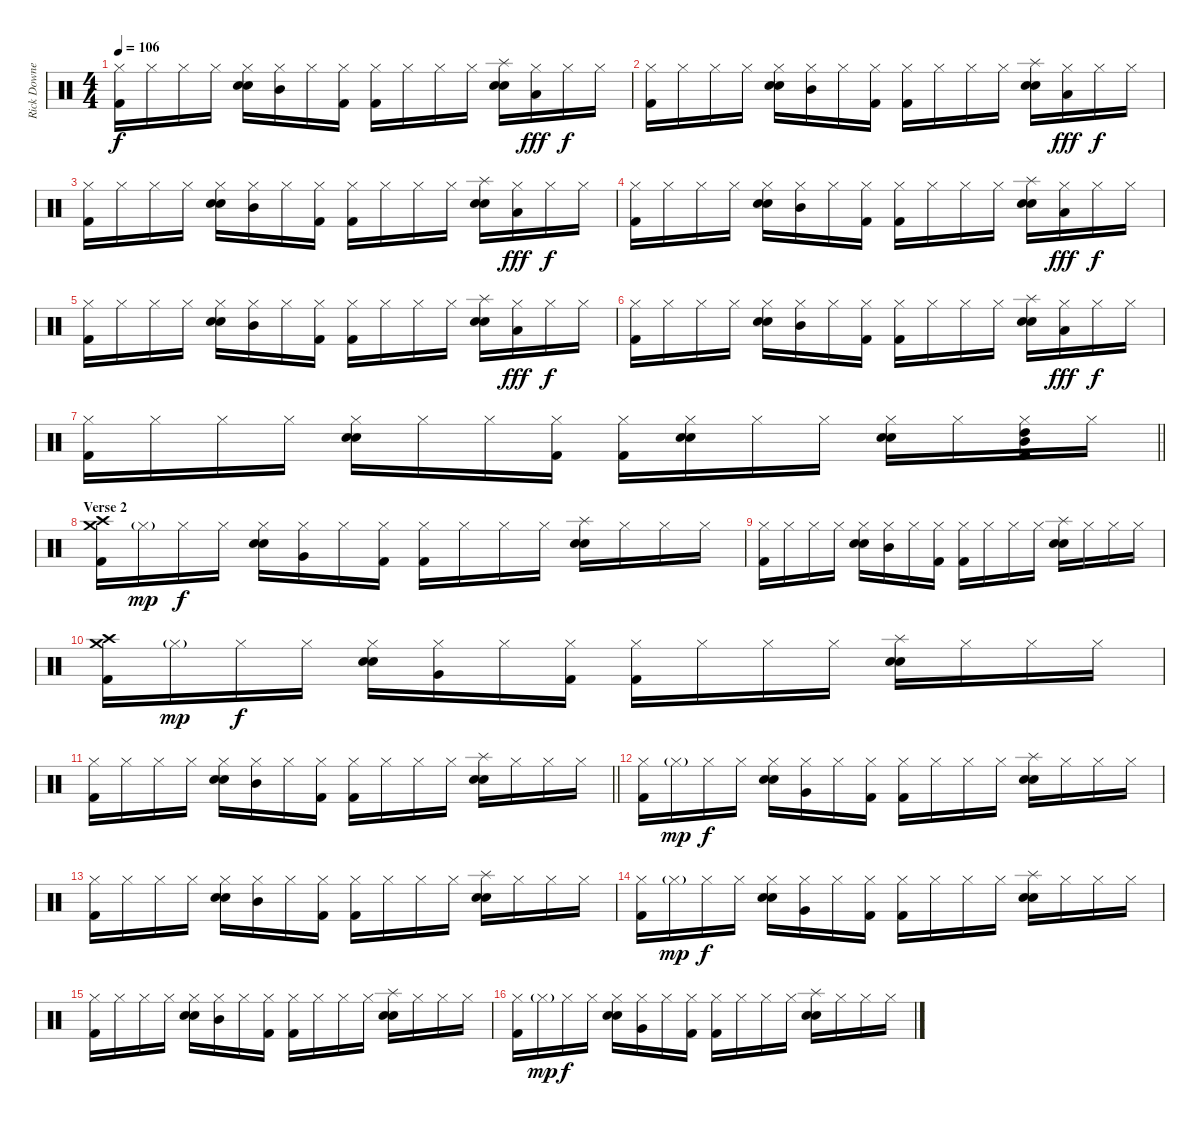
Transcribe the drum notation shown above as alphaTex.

\track ("Rick Downey" "Rick Downe") {instrument percussion}
\staff {score}
\articulation defaults
\ts (4 4)
\tempo 106
\clef neutral
\ks c
("Hi-Hat (closed)" "Kick (hit) 2").16{dy f} "Hi-Hat (closed)".16 "Hi-Hat (closed)".16 "Hi-Hat (closed)".16 ("Hi-Hat (closed)" "Electric Snare (hit)" "Snare (hit) 2").16 ("Mid Tom (hit)" "Hi-Hat (closed)").16 "Hi-Hat (closed)".16 ("Hi-Hat (closed)" "Kick (hit) 2").16 ("Hi-Hat (closed)" "Kick (hit) 2").16 "Hi-Hat (closed)".16 "Hi-Hat (closed)".16 "Hi-Hat (closed)".16 ("Splash (hit)" "Electric Snare (hit)" "Snare (hit) 2").16 ("Low Tom (hit)" "Hi-Hat (closed)").16{dy fff} "Hi-Hat (closed)".16{dy f} "Hi-Hat (closed)".16 |
("Hi-Hat (closed)" "Kick (hit) 2").16 "Hi-Hat (closed)".16 "Hi-Hat (closed)".16 "Hi-Hat (closed)".16 ("Hi-Hat (closed)" "Electric Snare (hit)" "Snare (hit) 2").16 ("Mid Tom (hit)" "Hi-Hat (closed)").16 "Hi-Hat (closed)".16 ("Hi-Hat (closed)" "Kick (hit) 2").16 ("Hi-Hat (closed)" "Kick (hit) 2").16 "Hi-Hat (closed)".16 "Hi-Hat (closed)".16 "Hi-Hat (closed)".16 ("Splash (hit)" "Electric Snare (hit)" "Snare (hit) 2").16 ("Low Tom (hit)" "Hi-Hat (closed)").16{dy fff} "Hi-Hat (closed)".16{dy f} "Hi-Hat (closed)".16 |
("Hi-Hat (closed)" "Kick (hit) 2").16 "Hi-Hat (closed)".16 "Hi-Hat (closed)".16 "Hi-Hat (closed)".16 ("Hi-Hat (closed)" "Electric Snare (hit)" "Snare (hit) 2").16 ("Mid Tom (hit)" "Hi-Hat (closed)").16 "Hi-Hat (closed)".16 ("Hi-Hat (closed)" "Kick (hit) 2").16 ("Hi-Hat (closed)" "Kick (hit) 2").16 "Hi-Hat (closed)".16 "Hi-Hat (closed)".16 "Hi-Hat (closed)".16 ("Splash (hit)" "Electric Snare (hit)" "Snare (hit) 2").16 ("Low Tom (hit)" "Hi-Hat (closed)").16{dy fff} "Hi-Hat (closed)".16{dy f} "Hi-Hat (closed)".16 |
("Hi-Hat (closed)" "Kick (hit) 2").16 "Hi-Hat (closed)".16 "Hi-Hat (closed)".16 "Hi-Hat (closed)".16 ("Hi-Hat (closed)" "Electric Snare (hit)" "Snare (hit) 2").16 ("Mid Tom (hit)" "Hi-Hat (closed)").16 "Hi-Hat (closed)".16 ("Hi-Hat (closed)" "Kick (hit) 2").16 ("Hi-Hat (closed)" "Kick (hit) 2").16 "Hi-Hat (closed)".16 "Hi-Hat (closed)".16 "Hi-Hat (closed)".16 ("Splash (hit)" "Electric Snare (hit)" "Snare (hit) 2").16 ("Low Tom (hit)" "Hi-Hat (closed)").16{dy fff} "Hi-Hat (closed)".16{dy f} "Hi-Hat (closed)".16 |
("Hi-Hat (closed)" "Kick (hit) 2").16 "Hi-Hat (closed)".16 "Hi-Hat (closed)".16 "Hi-Hat (closed)".16 ("Hi-Hat (closed)" "Electric Snare (hit)" "Snare (hit) 2").16 ("Mid Tom (hit)" "Hi-Hat (closed)").16 "Hi-Hat (closed)".16 ("Hi-Hat (closed)" "Kick (hit) 2").16 ("Hi-Hat (closed)" "Kick (hit) 2").16 "Hi-Hat (closed)".16 "Hi-Hat (closed)".16 "Hi-Hat (closed)".16 ("Splash (hit)" "Electric Snare (hit)" "Snare (hit) 2").16 ("Low Tom (hit)" "Hi-Hat (closed)").16{dy fff} "Hi-Hat (closed)".16{dy f} "Hi-Hat (closed)".16 |
("Hi-Hat (closed)" "Kick (hit) 2").16 "Hi-Hat (closed)".16 "Hi-Hat (closed)".16 "Hi-Hat (closed)".16 ("Hi-Hat (closed)" "Electric Snare (hit)" "Snare (hit) 2").16 ("Mid Tom (hit)" "Hi-Hat (closed)").16 "Hi-Hat (closed)".16 ("Hi-Hat (closed)" "Kick (hit) 2").16 ("Hi-Hat (closed)" "Kick (hit) 2").16 "Hi-Hat (closed)".16 "Hi-Hat (closed)".16 "Hi-Hat (closed)".16 ("Splash (hit)" "Electric Snare (hit)" "Snare (hit) 2").16 ("Low Tom (hit)" "Hi-Hat (closed)").16{dy fff} "Hi-Hat (closed)".16{dy f} "Hi-Hat (closed)".16 |
\barLineRight lightlight
("Hi-Hat (closed)" "Kick (hit) 2").16 "Hi-Hat (closed)".16 "Hi-Hat (closed)".16 "Hi-Hat (closed)".16 ("Hi-Hat (closed)" "Electric Snare (hit)" "Snare (hit) 2").16 "Hi-Hat (closed)".16 "Hi-Hat (closed)".16 ("Hi-Hat (closed)" "Kick (hit) 2").16 ("Hi-Hat (closed)" "Kick (hit) 2").16 ("Hi-Hat (closed)" "Electric Snare (hit)" "Snare (hit) 2").16 "Hi-Hat (closed)".16 "Hi-Hat (closed)".16 ("Hi-Hat (closed)" "Electric Snare (hit)" "Snare (hit) 2").16 "Hi-Hat (closed)".16 ("High Tom (hit)" "Mid Tom (hit)" "Hi-Hat (closed)" "Kick (hit) 2").16 "Hi-Hat (closed)".16 |
\section ("" "Verse 2")
("Crash medium (hit)" "Crash high (hit)" "Kick (hit) 2").16 "Hi-Hat (closed)"{g}.16{dy mp} "Hi-Hat (closed)".16{dy f} "Hi-Hat (closed)".16 ("Hi-Hat (closed)" "Electric Snare (hit)" "Snare (hit) 2").16 ("Hi-Hat (closed)" "Very Low Tom (hit)").16 "Hi-Hat (closed)".16 ("Hi-Hat (closed)" "Kick (hit) 2").16 ("Hi-Hat (closed)" "Kick (hit) 2").16 "Hi-Hat (closed)".16 "Hi-Hat (closed)".16 "Hi-Hat (closed)".16 ("Splash (hit)" "Electric Snare (hit)" "Snare (hit) 2").16 "Hi-Hat (closed)".16 "Hi-Hat (closed)".16 "Hi-Hat (closed)".16 |
("Hi-Hat (closed)" "Kick (hit) 2").16 "Hi-Hat (closed)".16 "Hi-Hat (closed)".16 "Hi-Hat (closed)".16 ("Hi-Hat (closed)" "Electric Snare (hit)" "Snare (hit) 2").16 ("Mid Tom (hit)" "Hi-Hat (closed)").16 "Hi-Hat (closed)".16 ("Hi-Hat (closed)" "Kick (hit) 2").16 ("Hi-Hat (closed)" "Kick (hit) 2").16 "Hi-Hat (closed)".16 "Hi-Hat (closed)".16 "Hi-Hat (closed)".16 ("Splash (hit)" "Electric Snare (hit)" "Snare (hit) 2").16 "Hi-Hat (closed)".16 "Hi-Hat (closed)".16 "Hi-Hat (closed)".16 |
("Crash medium (hit)" "Crash high (hit)" "Kick (hit) 2").16 "Hi-Hat (closed)"{g}.16{dy mp} "Hi-Hat (closed)".16{dy f} "Hi-Hat (closed)".16 ("Hi-Hat (closed)" "Electric Snare (hit)" "Snare (hit) 2").16 ("Hi-Hat (closed)" "Very Low Tom (hit)").16 "Hi-Hat (closed)".16 ("Hi-Hat (closed)" "Kick (hit) 2").16 ("Hi-Hat (closed)" "Kick (hit) 2").16 "Hi-Hat (closed)".16 "Hi-Hat (closed)".16 "Hi-Hat (closed)".16 ("Splash (hit)" "Electric Snare (hit)" "Snare (hit) 2").16 "Hi-Hat (closed)".16 "Hi-Hat (closed)".16 "Hi-Hat (closed)".16 |
\barLineRight lightlight
("Hi-Hat (closed)" "Kick (hit) 2").16 "Hi-Hat (closed)".16 "Hi-Hat (closed)".16 "Hi-Hat (closed)".16 ("Hi-Hat (closed)" "Electric Snare (hit)" "Snare (hit) 2").16 ("Mid Tom (hit)" "Hi-Hat (closed)").16 "Hi-Hat (closed)".16 ("Hi-Hat (closed)" "Kick (hit) 2").16 ("Hi-Hat (closed)" "Kick (hit) 2").16 "Hi-Hat (closed)".16 "Hi-Hat (closed)".16 "Hi-Hat (closed)".16 ("Splash (hit)" "Electric Snare (hit)" "Snare (hit) 2").16 "Hi-Hat (closed)".16 "Hi-Hat (closed)".16 "Hi-Hat (closed)".16 |
("Hi-Hat (closed)" "Kick (hit) 2").16 "Hi-Hat (closed)"{g}.16{dy mp} "Hi-Hat (closed)".16{dy f} "Hi-Hat (closed)".16 ("Hi-Hat (closed)" "Electric Snare (hit)" "Snare (hit) 2").16 ("Hi-Hat (closed)" "Very Low Tom (hit)").16 "Hi-Hat (closed)".16 ("Hi-Hat (closed)" "Kick (hit) 2").16 ("Hi-Hat (closed)" "Kick (hit) 2").16 "Hi-Hat (closed)".16 "Hi-Hat (closed)".16 "Hi-Hat (closed)".16 ("Splash (hit)" "Electric Snare (hit)" "Snare (hit) 2").16 "Hi-Hat (closed)".16 "Hi-Hat (closed)".16 "Hi-Hat (closed)".16 |
("Hi-Hat (closed)" "Kick (hit) 2").16 "Hi-Hat (closed)".16 "Hi-Hat (closed)".16 "Hi-Hat (closed)".16 ("Hi-Hat (closed)" "Electric Snare (hit)" "Snare (hit) 2").16 ("Mid Tom (hit)" "Hi-Hat (closed)").16 "Hi-Hat (closed)".16 ("Hi-Hat (closed)" "Kick (hit) 2").16 ("Hi-Hat (closed)" "Kick (hit) 2").16 "Hi-Hat (closed)".16 "Hi-Hat (closed)".16 "Hi-Hat (closed)".16 ("Splash (hit)" "Electric Snare (hit)" "Snare (hit) 2").16 "Hi-Hat (closed)".16 "Hi-Hat (closed)".16 "Hi-Hat (closed)".16 |
("Hi-Hat (closed)" "Kick (hit) 2").16 "Hi-Hat (closed)"{g}.16{dy mp} "Hi-Hat (closed)".16{dy f} "Hi-Hat (closed)".16 ("Hi-Hat (closed)" "Electric Snare (hit)" "Snare (hit) 2").16 ("Hi-Hat (closed)" "Very Low Tom (hit)").16 "Hi-Hat (closed)".16 ("Hi-Hat (closed)" "Kick (hit) 2").16 ("Hi-Hat (closed)" "Kick (hit) 2").16 "Hi-Hat (closed)".16 "Hi-Hat (closed)".16 "Hi-Hat (closed)".16 ("Splash (hit)" "Electric Snare (hit)" "Snare (hit) 2").16 "Hi-Hat (closed)".16 "Hi-Hat (closed)".16 "Hi-Hat (closed)".16 |
("Hi-Hat (closed)" "Kick (hit) 2").16 "Hi-Hat (closed)".16 "Hi-Hat (closed)".16 "Hi-Hat (closed)".16 ("Hi-Hat (closed)" "Electric Snare (hit)" "Snare (hit) 2").16 ("Mid Tom (hit)" "Hi-Hat (closed)").16 "Hi-Hat (closed)".16 ("Hi-Hat (closed)" "Kick (hit) 2").16 ("Hi-Hat (closed)" "Kick (hit) 2").16 "Hi-Hat (closed)".16 "Hi-Hat (closed)".16 "Hi-Hat (closed)".16 ("Splash (hit)" "Electric Snare (hit)" "Snare (hit) 2").16 "Hi-Hat (closed)".16 "Hi-Hat (closed)".16 "Hi-Hat (closed)".16 |
("Hi-Hat (closed)" "Kick (hit) 2").16 "Hi-Hat (closed)"{g}.16{dy mp} "Hi-Hat (closed)".16{dy f} "Hi-Hat (closed)".16 ("Hi-Hat (closed)" "Electric Snare (hit)" "Snare (hit) 2").16 ("Hi-Hat (closed)" "Very Low Tom (hit)").16 "Hi-Hat (closed)".16 ("Hi-Hat (closed)" "Kick (hit) 2").16 ("Hi-Hat (closed)" "Kick (hit) 2").16 "Hi-Hat (closed)".16 "Hi-Hat (closed)".16 "Hi-Hat (closed)".16 ("Splash (hit)" "Electric Snare (hit)" "Snare (hit) 2").16 "Hi-Hat (closed)".16 "Hi-Hat (closed)".16 "Hi-Hat (closed)".16
